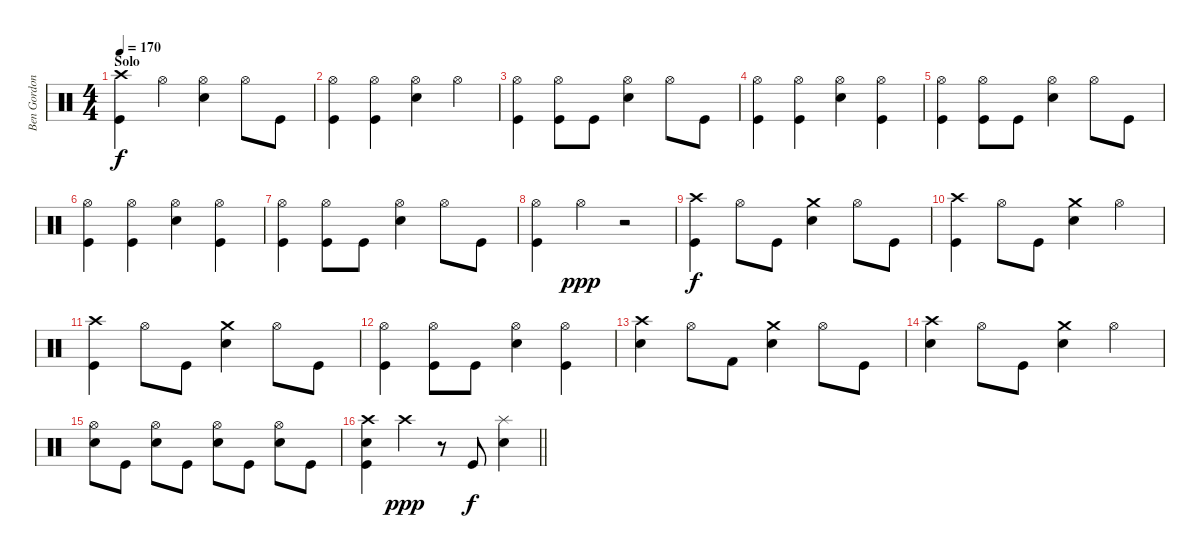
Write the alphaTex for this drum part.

\track ("Ben Gordon" "Ben Gordon") {instrument percussion}
\staff {score}
\articulation defaults
\ts (4 4)
\section ("" "Solo")
\tempo 170
\clef neutral
\ks c
("Crash high (hit)" "Kick (hit)").4{dy f} "Hi-Hat (open)".4 ("Hi-Hat (open)" "Electric Snare (hit)").4 "Hi-Hat (open)".8 "Kick (hit)".8 |
("Hi-Hat (open)" "Kick (hit)").4 ("Hi-Hat (open)" "Kick (hit)").4 ("Hi-Hat (open)" "Electric Snare (hit)").4 "Hi-Hat (open)".4 |
("Hi-Hat (open)" "Kick (hit)").4 ("Hi-Hat (open)" "Kick (hit)").8 "Kick (hit)".8 ("Hi-Hat (open)" "Electric Snare (hit)").4 "Hi-Hat (open)".8 "Kick (hit)".8 |
("Hi-Hat (open)" "Kick (hit)").4 ("Hi-Hat (open)" "Kick (hit)").4 ("Hi-Hat (open)" "Electric Snare (hit)").4 ("Hi-Hat (open)" "Kick (hit)").4 |
("Hi-Hat (open)" "Kick (hit)").4 ("Hi-Hat (open)" "Kick (hit)").8 "Kick (hit)".8 ("Hi-Hat (open)" "Electric Snare (hit)").4 "Hi-Hat (open)".8 "Kick (hit)".8 |
("Hi-Hat (open)" "Kick (hit)").4 ("Hi-Hat (open)" "Kick (hit)").4 ("Hi-Hat (open)" "Electric Snare (hit)").4 ("Hi-Hat (open)" "Kick (hit)").4 |
("Hi-Hat (open)" "Kick (hit)").4 ("Hi-Hat (open)" "Kick (hit)").8 "Kick (hit)".8 ("Hi-Hat (open)" "Electric Snare (hit)").4 "Hi-Hat (open)".8 "Kick (hit)".8 |
("Hi-Hat (open)" "Kick (hit)").4 "Hi-Hat (open)".4{dy ppp} r.2 |
("Crash high (hit)" "Kick (hit)").4{dy f} "Hi-Hat (open)".8 "Kick (hit)".8 ("Crash medium (hit)" "Electric Snare (hit)").4 "Hi-Hat (open)".8 "Kick (hit)".8 |
("Crash high (hit)" "Kick (hit)").4 "Hi-Hat (open)".8 "Kick (hit)".8 ("Crash medium (hit)" "Electric Snare (hit)").4 "Hi-Hat (open)".4 |
("Crash high (hit)" "Kick (hit)").4 "Hi-Hat (open)".8 "Kick (hit)".8 ("Crash medium (hit)" "Electric Snare (hit)").4 "Hi-Hat (open)".8 "Kick (hit)".8 |
("Hi-Hat (open)" "Kick (hit)").4 ("Hi-Hat (open)" "Kick (hit)").8 "Kick (hit)".8 ("Hi-Hat (open)" "Electric Snare (hit)").4 ("Hi-Hat (open)" "Kick (hit)").4 |
("Crash high (hit)" "Electric Snare (hit)").4 "Hi-Hat (open)".8 "Kick (hit) 2".8 ("Crash medium (hit)" "Electric Snare (hit)").4 "Hi-Hat (open)".8 "Kick (hit)".8 |
("Crash high (hit)" "Electric Snare (hit)").4 "Hi-Hat (open)".8 "Kick (hit)".8 ("Crash medium (hit)" "Electric Snare (hit)").4 "Hi-Hat (open)".4 |
("Hi-Hat (open)" "Electric Snare (hit)").8 "Kick (hit)".8 ("Hi-Hat (open)" "Electric Snare (hit)").8 "Kick (hit)".8 ("Hi-Hat (open)" "Electric Snare (hit)").8 "Kick (hit)".8 ("Hi-Hat (open)" "Electric Snare (hit)").8 "Kick (hit)".8 |
\barLineRight lightlight
("Crash high (hit)" "Electric Snare (hit)" "Kick (hit)").4 "Crash high (hit)".4{dy ppp} r.8 "Kick (hit)".8{dy f} ("Splash (hit)" "Electric Snare (hit)").4
